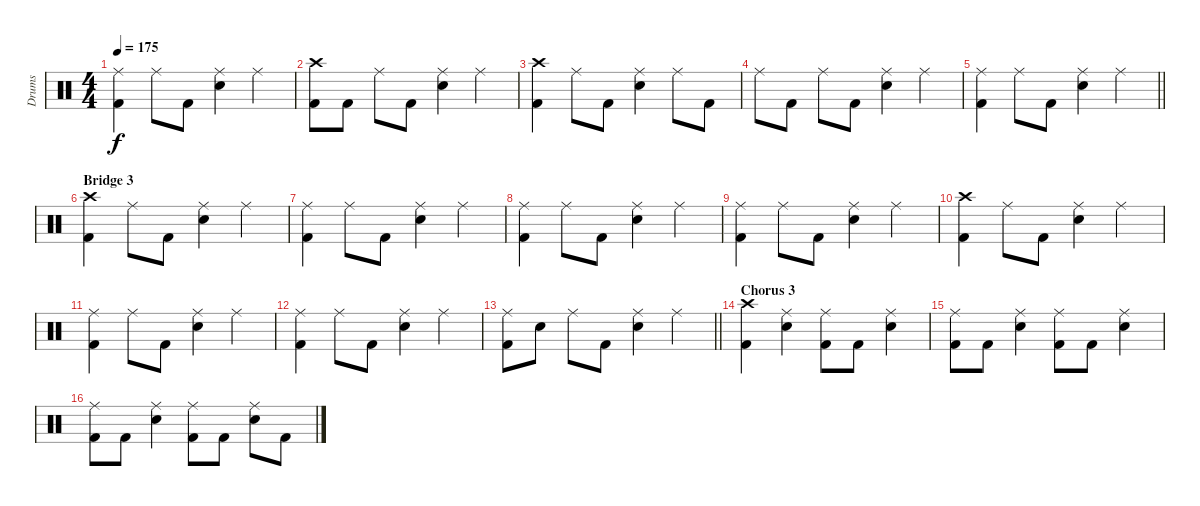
\track ("Drums" "Drums") {instrument percussion}
\staff {score}
\articulation defaults
\ts (4 4)
\tempo 175
\clef neutral
\ks c
("Ride (middle)" "Kick (hit) 2").4{dy f} "Ride (middle)".8 "Kick (hit) 2".8 ("Ride (middle)" "Snare (hit) 2").4 "Ride (middle)".4 |
("Crash high (hit)" "Kick (hit) 2").8 "Kick (hit) 2".8 "Ride (middle)".8 "Kick (hit) 2".8 ("Ride (middle)" "Snare (hit) 2").4 "Ride (middle)".4 |
("Crash high (hit)" "Kick (hit) 2").4 "Ride (middle)".8 "Kick (hit) 2".8 ("Ride (middle)" "Snare (hit) 2").4 "Ride (middle)".8 "Kick (hit) 2".8 |
"Ride (middle)".8 "Kick (hit) 2".8 "Ride (middle)".8 "Kick (hit) 2".8 ("Ride (middle)" "Snare (hit) 2").4 "Ride (middle)".4 |
\barLineRight lightlight
("Ride (middle)" "Kick (hit) 2").4 "Ride (middle)".8 "Kick (hit) 2".8 ("Ride (middle)" "Snare (hit) 2").4 "Ride (middle)".4 |
\section ("" "Bridge 3")
("Crash high (hit)" "Kick (hit) 2").4 "Ride (middle)".8 "Kick (hit) 2".8 ("Ride (middle)" "Snare (hit) 2").4 "Ride (middle)".4 |
("Ride (middle)" "Kick (hit) 2").4 "Ride (middle)".8 "Kick (hit) 2".8 ("Ride (middle)" "Snare (hit) 2").4 "Ride (middle)".4 |
("Ride (middle)" "Kick (hit) 2").4 "Ride (middle)".8 "Kick (hit) 2".8 ("Ride (middle)" "Snare (hit) 2").4 "Ride (middle)".4 |
("Ride (middle)" "Kick (hit) 2").4 "Ride (middle)".8 "Kick (hit) 2".8 ("Ride (middle)" "Snare (hit) 2").4 "Ride (middle)".4 |
("Crash high (hit)" "Kick (hit) 2").4 "Ride (middle)".8 "Kick (hit) 2".8 ("Ride (middle)" "Snare (hit) 2").4 "Ride (middle)".4 |
("Ride (middle)" "Kick (hit) 2").4 "Ride (middle)".8 "Kick (hit) 2".8 ("Ride (middle)" "Snare (hit) 2").4 "Ride (middle)".4 |
("Ride (middle)" "Kick (hit) 2").4 "Ride (middle)".8 "Kick (hit) 2".8 ("Ride (middle)" "Snare (hit) 2").4 "Ride (middle)".4 |
\barLineRight lightlight
("Ride (middle)" "Kick (hit) 2").8 "Snare (hit) 2".8 "Ride (middle)".8 "Kick (hit) 2".8 ("Ride (middle)" "Snare (hit) 2").4 "Ride (middle)".4 |
\section ("" "Chorus 3")
("Crash high (hit)" "Kick (hit) 2").4 ("Ride (middle)" "Snare (hit) 2").4 ("Ride (middle)" "Kick (hit) 2").8 "Kick (hit) 2".8 ("Ride (middle)" "Snare (hit) 2").4 |
("Ride (middle)" "Kick (hit) 2").8 "Kick (hit) 2".8 ("Ride (middle)" "Snare (hit) 2").4 ("Ride (middle)" "Kick (hit) 2").8 "Kick (hit) 2".8 ("Ride (middle)" "Snare (hit) 2").4 |
("Ride (middle)" "Kick (hit) 2").8 "Kick (hit) 2".8 ("Ride (middle)" "Snare (hit) 2").4 ("Ride (middle)" "Kick (hit) 2").8 "Kick (hit) 2".8 ("Ride (middle)" "Snare (hit) 2").8 "Kick (hit) 2".8
